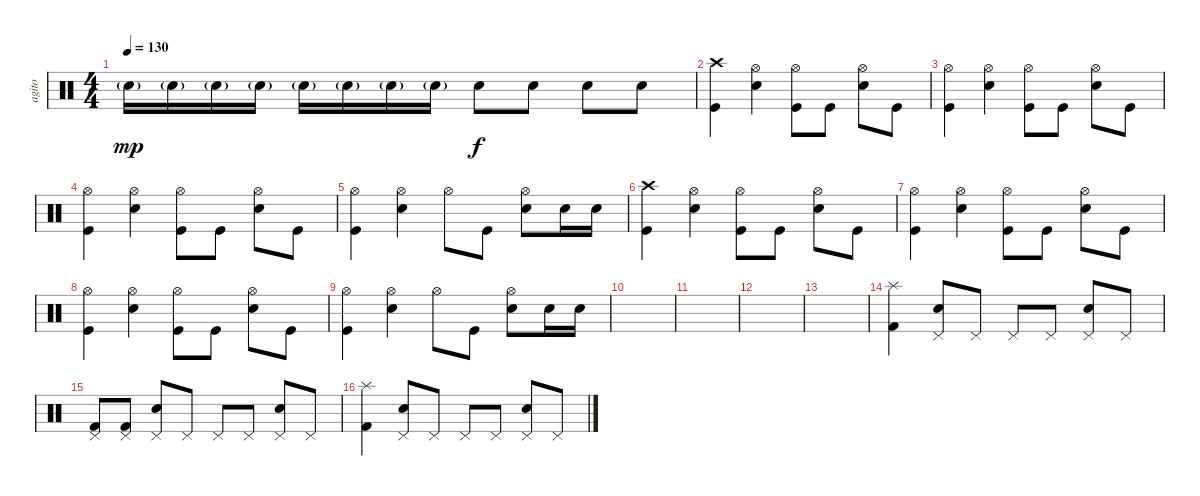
\track ("agito" "agito") {instrument percussion}
\staff {score}
\articulation defaults
\ts (4 4)
\tempo 130
\clef neutral
\ks c "Electric Snare (hit)"{g}.16{dy mp} "Electric Snare (hit)"{g}.16 "Electric Snare (hit)"{g}.16 "Electric Snare (hit)"{g}.16 "Electric Snare (hit)"{g}.16 "Electric Snare (hit)"{g}.16 "Electric Snare (hit)"{g}.16 "Electric Snare (hit)"{g}.16 "Electric Snare (hit)".8{dy f} "Electric Snare (hit)".8 "Electric Snare (hit)".8 "Electric Snare (hit)".8
|
("Crash high (hit)" "Kick (hit)").4 ("Hi-Hat (open)" "Snare (hit) 2").4 ("Hi-Hat (open)" "Kick (hit)").8 "Kick (hit)".8 ("Hi-Hat (open)" "Snare (hit) 2").8 "Kick (hit)".8 |
("Hi-Hat (open)" "Kick (hit)").4 ("Hi-Hat (open)" "Snare (hit) 2").4 ("Hi-Hat (open)" "Kick (hit)").8 "Kick (hit)".8 ("Hi-Hat (open)" "Snare (hit) 2").8 "Kick (hit)".8 |
("Hi-Hat (open)" "Kick (hit)").4 ("Hi-Hat (open)" "Snare (hit) 2").4 ("Hi-Hat (open)" "Kick (hit)").8 "Kick (hit)".8 ("Hi-Hat (open)" "Snare (hit) 2").8 "Kick (hit)".8 |
("Hi-Hat (open)" "Kick (hit)").4 ("Hi-Hat (open)" "Snare (hit) 2").4 "Hi-Hat (open)".8 "Kick (hit)".8 ("Hi-Hat (open)" "Snare (hit) 2").8 "Snare (hit) 2".16 "Snare (hit) 2".16 |
("Crash high (hit)" "Kick (hit)").4 ("Hi-Hat (open)" "Snare (hit) 2").4 ("Hi-Hat (open)" "Kick (hit)").8 "Kick (hit)".8 ("Hi-Hat (open)" "Snare (hit) 2").8 "Kick (hit)".8 |
("Hi-Hat (open)" "Kick (hit)").4 ("Hi-Hat (open)" "Snare (hit) 2").4 ("Hi-Hat (open)" "Kick (hit)").8 "Kick (hit)".8 ("Hi-Hat (open)" "Snare (hit) 2").8 "Kick (hit)".8 |
("Hi-Hat (open)" "Kick (hit)").4 ("Hi-Hat (open)" "Snare (hit) 2").4 ("Hi-Hat (open)" "Kick (hit)").8 "Kick (hit)".8 ("Hi-Hat (open)" "Snare (hit) 2").8 "Kick (hit)".8 |
("Hi-Hat (open)" "Kick (hit)").4 ("Hi-Hat (open)" "Snare (hit) 2").4 "Hi-Hat (open)".8 "Kick (hit)".8 ("Hi-Hat (open)" "Snare (hit) 2").8 "Snare (hit) 2".16 "Snare (hit) 2".16 |
|
|
|
|
("Splash (hit)" "Kick (hit) 2").4 ("Pedal Hi-Hat (hit)" "Electric Snare (hit)").8 "Pedal Hi-Hat (hit)".8 "Pedal Hi-Hat (hit)".8 "Pedal Hi-Hat (hit)".8 ("Pedal Hi-Hat (hit)" "Electric Snare (hit)").8 "Pedal Hi-Hat (hit)".8 |
("Pedal Hi-Hat (hit)" "Kick (hit) 2").8 ("Pedal Hi-Hat (hit)" "Kick (hit) 2").8 ("Pedal Hi-Hat (hit)" "Electric Snare (hit)").8 "Pedal Hi-Hat (hit)".8 "Pedal Hi-Hat (hit)".8 "Pedal Hi-Hat (hit)".8 ("Pedal Hi-Hat (hit)" "Electric Snare (hit)").8 "Pedal Hi-Hat (hit)".8 |
("Splash (hit)" "Kick (hit) 2").4 ("Pedal Hi-Hat (hit)" "Electric Snare (hit)").8 "Pedal Hi-Hat (hit)".8 "Pedal Hi-Hat (hit)".8 "Pedal Hi-Hat (hit)".8 ("Pedal Hi-Hat (hit)" "Electric Snare (hit)").8 "Pedal Hi-Hat (hit)".8
